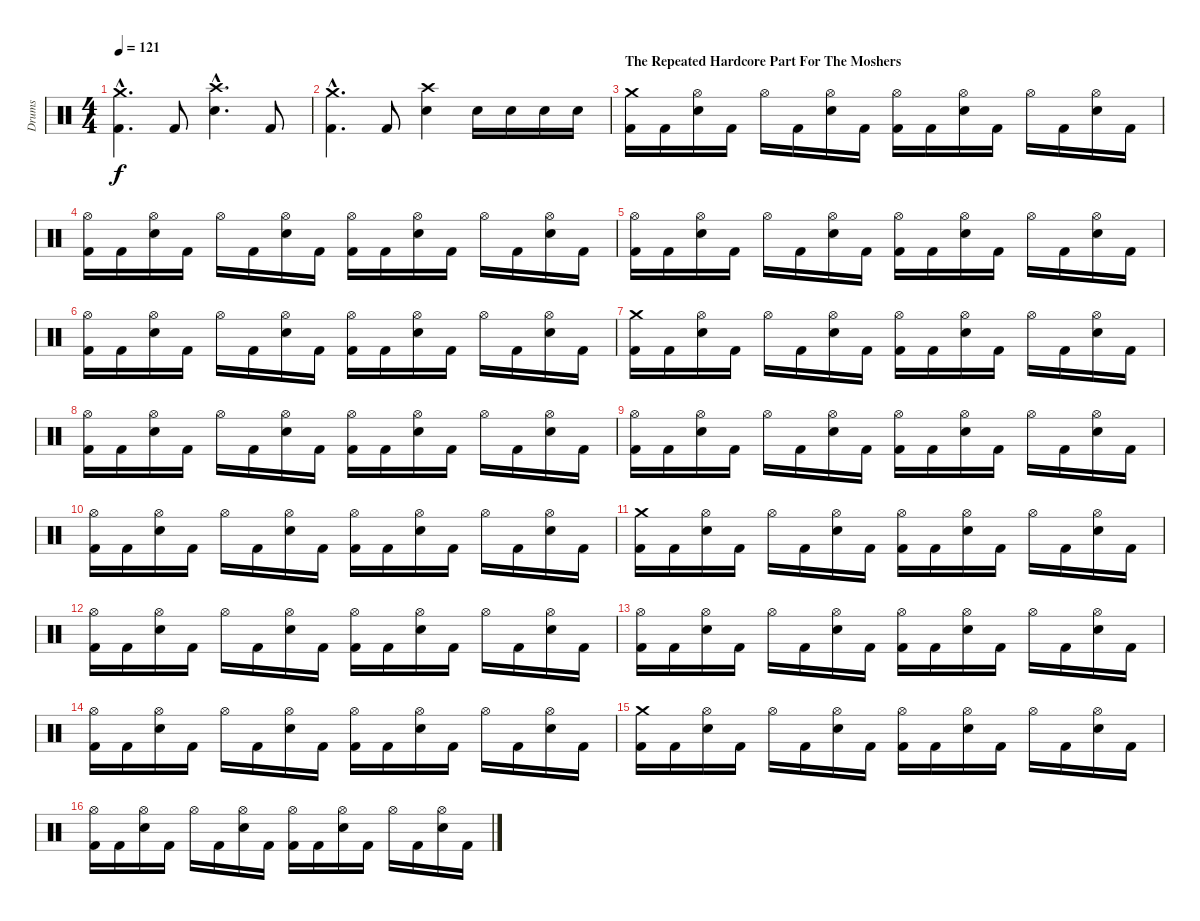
\track ("Drums" "Drums") {instrument percussion}
\staff {score}
\articulation defaults
\ts (4 4)
\tempo 121
\clef neutral
\ks c
("Crash medium (hit)"{hac} "Kick (hit) 2"{hac}).4{d dy f} "Kick (hit) 2".8 ("Crash high (hit)"{hac} "Electric Snare (hit)"{hac}).4{d} "Kick (hit) 2".8 |
("Crash medium (hit)"{hac} "Kick (hit) 2"{hac}).4{d} "Kick (hit) 2".8 ("Crash high (hit)" "Electric Snare (hit)").4 "Electric Snare (hit)".16 "Electric Snare (hit)".16 "Electric Snare (hit)".16 "Electric Snare (hit)".16 |
\section ("" "The Repeated Hardcore Part For The Moshers")
("Crash medium (hit)" "Kick (hit) 2").16 "Kick (hit) 2".16 ("Hi-Hat (open)" "Electric Snare (hit)").16 "Kick (hit) 2".16 "Hi-Hat (open)".16 "Kick (hit) 2".16 ("Hi-Hat (open)" "Electric Snare (hit)").16 "Kick (hit) 2".16 ("Hi-Hat (open)" "Kick (hit) 2").16 "Kick (hit) 2".16 ("Hi-Hat (open)" "Electric Snare (hit)").16 "Kick (hit) 2".16 "Hi-Hat (open)".16 "Kick (hit) 2".16 ("Hi-Hat (open)" "Electric Snare (hit)").16 "Kick (hit) 2".16 |
("Hi-Hat (open)" "Kick (hit) 2").16 "Kick (hit) 2".16 ("Hi-Hat (open)" "Electric Snare (hit)").16 "Kick (hit) 2".16 "Hi-Hat (open)".16 "Kick (hit) 2".16 ("Hi-Hat (open)" "Electric Snare (hit)").16 "Kick (hit) 2".16 ("Hi-Hat (open)" "Kick (hit) 2").16 "Kick (hit) 2".16 ("Hi-Hat (open)" "Electric Snare (hit)").16 "Kick (hit) 2".16 "Hi-Hat (open)".16 "Kick (hit) 2".16 ("Hi-Hat (open)" "Electric Snare (hit)").16 "Kick (hit) 2".16 |
("Hi-Hat (open)" "Kick (hit) 2").16 "Kick (hit) 2".16 ("Hi-Hat (open)" "Electric Snare (hit)").16 "Kick (hit) 2".16 "Hi-Hat (open)".16 "Kick (hit) 2".16 ("Hi-Hat (open)" "Electric Snare (hit)").16 "Kick (hit) 2".16 ("Hi-Hat (open)" "Kick (hit) 2").16 "Kick (hit) 2".16 ("Hi-Hat (open)" "Electric Snare (hit)").16 "Kick (hit) 2".16 "Hi-Hat (open)".16 "Kick (hit) 2".16 ("Hi-Hat (open)" "Electric Snare (hit)").16 "Kick (hit) 2".16 |
("Hi-Hat (open)" "Kick (hit) 2").16 "Kick (hit) 2".16 ("Hi-Hat (open)" "Electric Snare (hit)").16 "Kick (hit) 2".16 "Hi-Hat (open)".16 "Kick (hit) 2".16 ("Hi-Hat (open)" "Electric Snare (hit)").16 "Kick (hit) 2".16 ("Hi-Hat (open)" "Kick (hit) 2").16 "Kick (hit) 2".16 ("Hi-Hat (open)" "Electric Snare (hit)").16 "Kick (hit) 2".16 "Hi-Hat (open)".16 "Kick (hit) 2".16 ("Hi-Hat (open)" "Electric Snare (hit)").16 "Kick (hit) 2".16 |
("Crash medium (hit)" "Kick (hit) 2").16 "Kick (hit) 2".16 ("Hi-Hat (open)" "Electric Snare (hit)").16 "Kick (hit) 2".16 "Hi-Hat (open)".16 "Kick (hit) 2".16 ("Hi-Hat (open)" "Electric Snare (hit)").16 "Kick (hit) 2".16 ("Hi-Hat (open)" "Kick (hit) 2").16 "Kick (hit) 2".16 ("Hi-Hat (open)" "Electric Snare (hit)").16 "Kick (hit) 2".16 "Hi-Hat (open)".16 "Kick (hit) 2".16 ("Hi-Hat (open)" "Electric Snare (hit)").16 "Kick (hit) 2".16 |
("Hi-Hat (open)" "Kick (hit) 2").16 "Kick (hit) 2".16 ("Hi-Hat (open)" "Electric Snare (hit)").16 "Kick (hit) 2".16 "Hi-Hat (open)".16 "Kick (hit) 2".16 ("Hi-Hat (open)" "Electric Snare (hit)").16 "Kick (hit) 2".16 ("Hi-Hat (open)" "Kick (hit) 2").16 "Kick (hit) 2".16 ("Hi-Hat (open)" "Electric Snare (hit)").16 "Kick (hit) 2".16 "Hi-Hat (open)".16 "Kick (hit) 2".16 ("Hi-Hat (open)" "Electric Snare (hit)").16 "Kick (hit) 2".16 |
("Hi-Hat (open)" "Kick (hit) 2").16 "Kick (hit) 2".16 ("Hi-Hat (open)" "Electric Snare (hit)").16 "Kick (hit) 2".16 "Hi-Hat (open)".16 "Kick (hit) 2".16 ("Hi-Hat (open)" "Electric Snare (hit)").16 "Kick (hit) 2".16 ("Hi-Hat (open)" "Kick (hit) 2").16 "Kick (hit) 2".16 ("Hi-Hat (open)" "Electric Snare (hit)").16 "Kick (hit) 2".16 "Hi-Hat (open)".16 "Kick (hit) 2".16 ("Hi-Hat (open)" "Electric Snare (hit)").16 "Kick (hit) 2".16 |
("Hi-Hat (open)" "Kick (hit) 2").16 "Kick (hit) 2".16 ("Hi-Hat (open)" "Electric Snare (hit)").16 "Kick (hit) 2".16 "Hi-Hat (open)".16 "Kick (hit) 2".16 ("Hi-Hat (open)" "Electric Snare (hit)").16 "Kick (hit) 2".16 ("Hi-Hat (open)" "Kick (hit) 2").16 "Kick (hit) 2".16 ("Hi-Hat (open)" "Electric Snare (hit)").16 "Kick (hit) 2".16 "Hi-Hat (open)".16 "Kick (hit) 2".16 ("Hi-Hat (open)" "Electric Snare (hit)").16 "Kick (hit) 2".16 |
("Crash medium (hit)" "Kick (hit) 2").16 "Kick (hit) 2".16 ("Hi-Hat (open)" "Electric Snare (hit)").16 "Kick (hit) 2".16 "Hi-Hat (open)".16 "Kick (hit) 2".16 ("Hi-Hat (open)" "Electric Snare (hit)").16 "Kick (hit) 2".16 ("Hi-Hat (open)" "Kick (hit) 2").16 "Kick (hit) 2".16 ("Hi-Hat (open)" "Electric Snare (hit)").16 "Kick (hit) 2".16 "Hi-Hat (open)".16 "Kick (hit) 2".16 ("Hi-Hat (open)" "Electric Snare (hit)").16 "Kick (hit) 2".16 |
("Hi-Hat (open)" "Kick (hit) 2").16 "Kick (hit) 2".16 ("Hi-Hat (open)" "Electric Snare (hit)").16 "Kick (hit) 2".16 "Hi-Hat (open)".16 "Kick (hit) 2".16 ("Hi-Hat (open)" "Electric Snare (hit)").16 "Kick (hit) 2".16 ("Hi-Hat (open)" "Kick (hit) 2").16 "Kick (hit) 2".16 ("Hi-Hat (open)" "Electric Snare (hit)").16 "Kick (hit) 2".16 "Hi-Hat (open)".16 "Kick (hit) 2".16 ("Hi-Hat (open)" "Electric Snare (hit)").16 "Kick (hit) 2".16 |
("Hi-Hat (open)" "Kick (hit) 2").16 "Kick (hit) 2".16 ("Hi-Hat (open)" "Electric Snare (hit)").16 "Kick (hit) 2".16 "Hi-Hat (open)".16 "Kick (hit) 2".16 ("Hi-Hat (open)" "Electric Snare (hit)").16 "Kick (hit) 2".16 ("Hi-Hat (open)" "Kick (hit) 2").16 "Kick (hit) 2".16 ("Hi-Hat (open)" "Electric Snare (hit)").16 "Kick (hit) 2".16 "Hi-Hat (open)".16 "Kick (hit) 2".16 ("Hi-Hat (open)" "Electric Snare (hit)").16 "Kick (hit) 2".16 |
("Hi-Hat (open)" "Kick (hit) 2").16 "Kick (hit) 2".16 ("Hi-Hat (open)" "Electric Snare (hit)").16 "Kick (hit) 2".16 "Hi-Hat (open)".16 "Kick (hit) 2".16 ("Hi-Hat (open)" "Electric Snare (hit)").16 "Kick (hit) 2".16 ("Hi-Hat (open)" "Kick (hit) 2").16 "Kick (hit) 2".16 ("Hi-Hat (open)" "Electric Snare (hit)").16 "Kick (hit) 2".16 "Hi-Hat (open)".16 "Kick (hit) 2".16 ("Hi-Hat (open)" "Electric Snare (hit)").16 "Kick (hit) 2".16 |
("Crash medium (hit)" "Kick (hit) 2").16 "Kick (hit) 2".16 ("Hi-Hat (open)" "Electric Snare (hit)").16 "Kick (hit) 2".16 "Hi-Hat (open)".16 "Kick (hit) 2".16 ("Hi-Hat (open)" "Electric Snare (hit)").16 "Kick (hit) 2".16 ("Hi-Hat (open)" "Kick (hit) 2").16 "Kick (hit) 2".16 ("Hi-Hat (open)" "Electric Snare (hit)").16 "Kick (hit) 2".16 "Hi-Hat (open)".16 "Kick (hit) 2".16 ("Hi-Hat (open)" "Electric Snare (hit)").16 "Kick (hit) 2".16 |
("Hi-Hat (open)" "Kick (hit) 2").16 "Kick (hit) 2".16 ("Hi-Hat (open)" "Electric Snare (hit)").16 "Kick (hit) 2".16 "Hi-Hat (open)".16 "Kick (hit) 2".16 ("Hi-Hat (open)" "Electric Snare (hit)").16 "Kick (hit) 2".16 ("Hi-Hat (open)" "Kick (hit) 2").16 "Kick (hit) 2".16 ("Hi-Hat (open)" "Electric Snare (hit)").16 "Kick (hit) 2".16 "Hi-Hat (open)".16 "Kick (hit) 2".16 ("Hi-Hat (open)" "Electric Snare (hit)").16 "Kick (hit) 2".16
